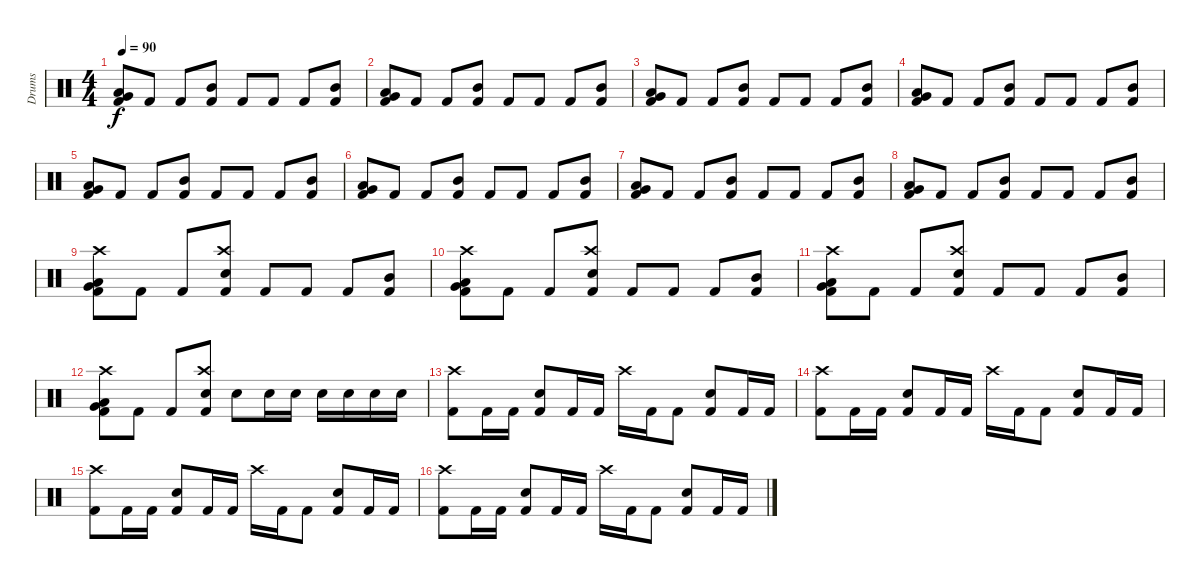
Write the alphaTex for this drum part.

\track ("Drums" "Drums") {instrument percussion}
\staff {score}
\articulation defaults
\ts (4 4)
\tempo 90
\clef neutral
\ks c
("Very Low Tom (hit)" "Low Tom (hit)" "Kick (hit) 2").8{dy f volume 6} "Kick (hit) 2".8{volume 13} "Kick (hit) 2".8 ("Mid Tom (hit)" "Kick (hit) 2").8 "Kick (hit) 2".8 "Kick (hit) 2".8 "Kick (hit) 2".8 ("Mid Tom (hit)" "Kick (hit) 2").8 |
("Very Low Tom (hit)" "Low Tom (hit)" "Kick (hit) 2").8 "Kick (hit) 2".8 "Kick (hit) 2".8 ("Mid Tom (hit)" "Kick (hit) 2").8 "Kick (hit) 2".8 "Kick (hit) 2".8 "Kick (hit) 2".8 ("Mid Tom (hit)" "Kick (hit) 2").8 |
("Very Low Tom (hit)" "Low Tom (hit)" "Kick (hit) 2").8 "Kick (hit) 2".8 "Kick (hit) 2".8 ("Mid Tom (hit)" "Kick (hit) 2").8 "Kick (hit) 2".8 "Kick (hit) 2".8 "Kick (hit) 2".8 ("Mid Tom (hit)" "Kick (hit) 2").8 |
("Very Low Tom (hit)" "Low Tom (hit)" "Kick (hit) 2").8 "Kick (hit) 2".8 "Kick (hit) 2".8 ("Mid Tom (hit)" "Kick (hit) 2").8 "Kick (hit) 2".8 "Kick (hit) 2".8 "Kick (hit) 2".8 ("Mid Tom (hit)" "Kick (hit) 2").8 |
("Very Low Tom (hit)" "Low Tom (hit)" "Kick (hit) 2").8 "Kick (hit) 2".8 "Kick (hit) 2".8 ("Mid Tom (hit)" "Kick (hit) 2").8 "Kick (hit) 2".8 "Kick (hit) 2".8 "Kick (hit) 2".8 ("Mid Tom (hit)" "Kick (hit) 2").8 |
("Very Low Tom (hit)" "Low Tom (hit)" "Kick (hit) 2").8 "Kick (hit) 2".8 "Kick (hit) 2".8 ("Mid Tom (hit)" "Kick (hit) 2").8 "Kick (hit) 2".8 "Kick (hit) 2".8 "Kick (hit) 2".8 ("Mid Tom (hit)" "Kick (hit) 2").8 |
("Very Low Tom (hit)" "Low Tom (hit)" "Kick (hit) 2").8 "Kick (hit) 2".8 "Kick (hit) 2".8 ("Mid Tom (hit)" "Kick (hit) 2").8 "Kick (hit) 2".8 "Kick (hit) 2".8 "Kick (hit) 2".8 ("Mid Tom (hit)" "Kick (hit) 2").8 |
("Very Low Tom (hit)" "Low Tom (hit)" "Kick (hit) 2").8 "Kick (hit) 2".8 "Kick (hit) 2".8 ("Mid Tom (hit)" "Kick (hit) 2").8 "Kick (hit) 2".8 "Kick (hit) 2".8 "Kick (hit) 2".8 ("Mid Tom (hit)" "Kick (hit) 2").8 |
("Crash high (hit)" "Very Low Tom (hit)" "Low Tom (hit)" "Kick (hit) 2").8 "Kick (hit) 2".8 "Kick (hit) 2".8 ("Crash high (hit)" "Electric Snare (hit)" "Kick (hit) 2").8 "Kick (hit) 2".8 "Kick (hit) 2".8 "Kick (hit) 2".8 ("Mid Tom (hit)" "Kick (hit) 2").8 |
("Crash high (hit)" "Very Low Tom (hit)" "Low Tom (hit)" "Kick (hit) 2").8 "Kick (hit) 2".8 "Kick (hit) 2".8 ("Crash high (hit)" "Electric Snare (hit)" "Kick (hit) 2").8 "Kick (hit) 2".8 "Kick (hit) 2".8 "Kick (hit) 2".8 ("Mid Tom (hit)" "Kick (hit) 2").8 |
("Crash high (hit)" "Very Low Tom (hit)" "Low Tom (hit)" "Kick (hit) 2").8 "Kick (hit) 2".8 "Kick (hit) 2".8 ("Crash high (hit)" "Electric Snare (hit)" "Kick (hit) 2").8 "Kick (hit) 2".8 "Kick (hit) 2".8 "Kick (hit) 2".8 ("Mid Tom (hit)" "Kick (hit) 2").8 |
("Crash high (hit)" "Very Low Tom (hit)" "Low Tom (hit)" "Kick (hit) 2").8 "Kick (hit) 2".8 "Kick (hit) 2".8 ("Crash high (hit)" "Electric Snare (hit)" "Kick (hit) 2").8 "Electric Snare (hit)".8 "Electric Snare (hit)".16 "Electric Snare (hit)".16 "Electric Snare (hit)".16 "Electric Snare (hit)".16 "Electric Snare (hit)".16 "Electric Snare (hit)".16 |
("Crash high (hit)" "Kick (hit) 2").8 "Kick (hit) 2".16 "Kick (hit) 2".16 ("Electric Snare (hit)" "Kick (hit) 2").8 "Kick (hit) 2".16 "Kick (hit) 2".16 "Crash high (hit)".16 "Kick (hit) 2".16 "Kick (hit) 2".8 ("Snare (hit) 2" "Kick (hit) 2").8 "Kick (hit) 2".16 "Kick (hit) 2".16 |
("Crash high (hit)" "Kick (hit) 2").8 "Kick (hit) 2".16 "Kick (hit) 2".16 ("Electric Snare (hit)" "Kick (hit) 2").8 "Kick (hit) 2".16 "Kick (hit) 2".16 "Crash high (hit)".16 "Kick (hit) 2".16 "Kick (hit) 2".8 ("Snare (hit) 2" "Kick (hit) 2").8 "Kick (hit) 2".16 "Kick (hit) 2".16 |
("Crash high (hit)" "Kick (hit) 2").8 "Kick (hit) 2".16 "Kick (hit) 2".16 ("Electric Snare (hit)" "Kick (hit) 2").8 "Kick (hit) 2".16 "Kick (hit) 2".16 "Crash high (hit)".16 "Kick (hit) 2".16 "Kick (hit) 2".8 ("Snare (hit) 2" "Kick (hit) 2").8 "Kick (hit) 2".16 "Kick (hit) 2".16 |
("Crash high (hit)" "Kick (hit) 2").8 "Kick (hit) 2".16 "Kick (hit) 2".16 ("Electric Snare (hit)" "Kick (hit) 2").8 "Kick (hit) 2".16 "Kick (hit) 2".16 "Crash high (hit)".16 "Kick (hit) 2".16 "Kick (hit) 2".8 ("Snare (hit) 2" "Kick (hit) 2").8 "Kick (hit) 2".16 "Kick (hit) 2".16
